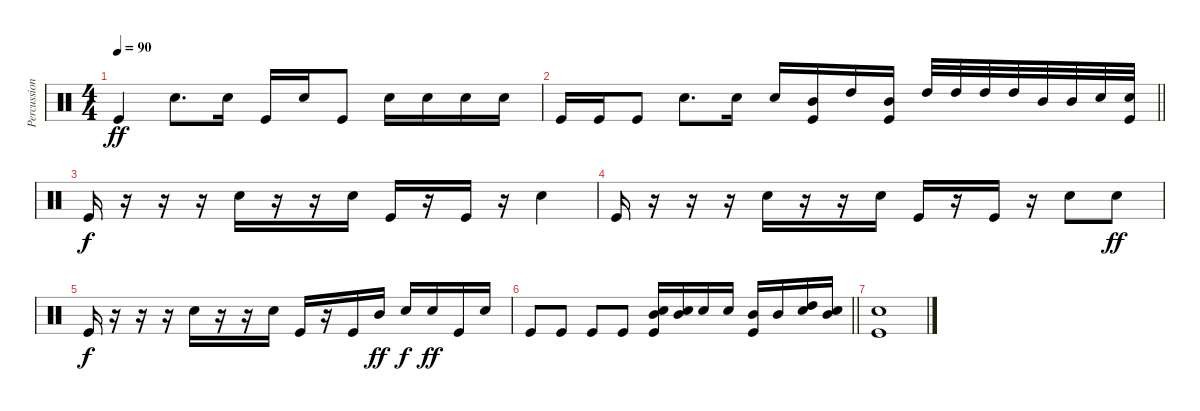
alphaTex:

\track ("Percussion" "Percussion") {instrument percussion}
\staff
\articulation defaults
\ts (4 4)
\tempo 90
\clef neutral
\ks c "Kick (hit)".4{dy ff} "Electric Snare (hit)".8{d} "Electric Snare (hit)".16 "Kick (hit)".16 "Electric Snare (hit)".16 "Kick (hit)".8 "Electric Snare (hit)".16 "Electric Snare (hit)".16 "Electric Snare (hit)".16 "Electric Snare (hit)".16
|
\barLineRight lightlight "Kick (hit)".16 "Kick (hit)".16 "Kick (hit)".8 "Electric Snare (hit)".8{d} "Electric Snare (hit)".16 "Electric Snare (hit)".16
("Kick (hit)" "Mid Tom (hit)").16 "High Tom (hit)".16 ("Kick (hit)" "Mid Tom (hit)").16 "High Tom (hit)".32 "High Tom (hit)".32 "High Tom (hit)".32 "High Tom (hit)".32 "Mid Tom (hit)".32 "Mid Tom (hit)".32 "Electric Snare (hit)".32 ("Kick (hit)" "Electric Snare (hit)").32 |
"Kick (hit)".16{dy f} r.16 r.16 r.16 "Electric Snare (hit)".16 r.16 r.16 "Electric Snare (hit)".16 "Kick (hit)".16 r.16 "Kick (hit)".16 r.16 "Electric Snare (hit)".4 |
"Kick (hit)".16 r.16 r.16 r.16 "Electric Snare (hit)".16 r.16 r.16 "Electric Snare (hit)".16 "Kick (hit)".16 r.16 "Kick (hit)".16 r.16 "Electric Snare (hit)".8 "Electric Snare (hit)".8{dy ff} |
"Kick (hit)".16{dy f} r.16 r.16 r.16 "Electric Snare (hit)".16 r.16 r.16 "Electric Snare (hit)".16 "Kick (hit)".16 r.16 "Kick (hit)".16 "Mid Tom (hit)".16{dy ff} "Electric Snare (hit)".16{dy f} "Electric Snare (hit)".16{dy ff} "Kick (hit)".16 "Electric Snare (hit)".16 |
\barLineRight lightlight "Kick (hit)".8 "Kick (hit)".8 "Kick (hit)".8 "Kick (hit)".8
("Kick (hit)" "Mid Tom (hit)" "Electric Snare (hit)").16 ("Mid Tom (hit)" "Electric Snare (hit)").16 "Electric Snare (hit)".16 "Electric Snare (hit)".16 ("Kick (hit)" "Mid Tom (hit)").16 "Mid Tom (hit)".16 ("Electric Snare (hit)" "High Tom (hit)").16 ("Electric Snare (hit)" "Mid Tom (hit)").16 |
("Kick (hit)" "Electric Snare (hit)").1
